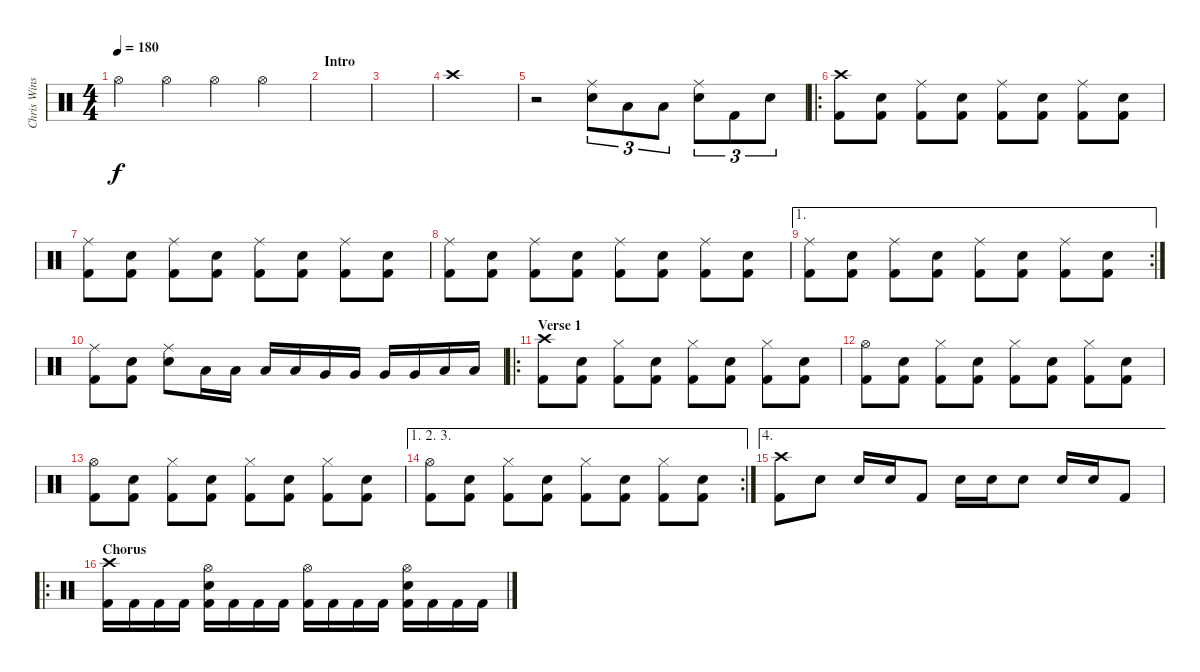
\track ("Chris Winship (Drums)" "Chris Wins") {instrument percussion}
\staff {score}
\articulation defaults
\ts (4 4)
\tempo 180
\clef neutral
\ks c "Hi-Hat (open)".4{dy f} "Hi-Hat (open)".4 "Hi-Hat (open)".4 "Hi-Hat (open)".4
|
\section ("" "Intro")
|
|
"Crash high (hit)".1 |
r.2 ("Ride (middle)" "Electric Snare (hit)").8{tu (3 2)} "Low Floor Tom (hit)".8{tu (3 2)} "Low Floor Tom (hit)".8{tu (3 2)} ("Ride (middle)" "Electric Snare (hit)").8{tu (3 2)} "Kick (hit) 2".8{tu (3 2)} "Electric Snare (hit)".8{tu (3 2)} |
\ro
("Crash high (hit)" "Kick (hit) 2").8 ("Electric Snare (hit)" "Kick (hit) 2").8 ("Ride (middle)" "Kick (hit) 2").8 ("Electric Snare (hit)" "Kick (hit) 2").8 ("Ride (middle)" "Kick (hit) 2").8 ("Electric Snare (hit)" "Kick (hit) 2").8 ("Ride (middle)" "Kick (hit) 2").8 ("Electric Snare (hit)" "Kick (hit) 2").8 |
("Ride (middle)" "Kick (hit) 2").8 ("Electric Snare (hit)" "Kick (hit) 2").8 ("Ride (middle)" "Kick (hit) 2").8 ("Electric Snare (hit)" "Kick (hit) 2").8 ("Ride (middle)" "Kick (hit) 2").8 ("Electric Snare (hit)" "Kick (hit) 2").8 ("Ride (middle)" "Kick (hit) 2").8 ("Electric Snare (hit)" "Kick (hit) 2").8 |
("Ride (middle)" "Kick (hit) 2").8 ("Electric Snare (hit)" "Kick (hit) 2").8 ("Ride (middle)" "Kick (hit) 2").8 ("Electric Snare (hit)" "Kick (hit) 2").8 ("Ride (middle)" "Kick (hit) 2").8 ("Electric Snare (hit)" "Kick (hit) 2").8 ("Ride (middle)" "Kick (hit) 2").8 ("Electric Snare (hit)" "Kick (hit) 2").8 |
\ae 1
\rc 2
("Ride (middle)" "Kick (hit) 2").8 ("Electric Snare (hit)" "Kick (hit) 2").8 ("Ride (middle)" "Kick (hit) 2").8 ("Electric Snare (hit)" "Kick (hit) 2").8 ("Ride (middle)" "Kick (hit) 2").8 ("Electric Snare (hit)" "Kick (hit) 2").8 ("Ride (middle)" "Kick (hit) 2").8 ("Electric Snare (hit)" "Kick (hit) 2").8 |
("Ride (middle)" "Kick (hit) 2").8 ("Electric Snare (hit)" "Kick (hit) 2").8 ("Ride (middle)" "Electric Snare (hit)").8 "Low Floor Tom (hit)".16 "Low Floor Tom (hit)".16 "Low Tom (hit)".16 "Low Tom (hit)".16 "Very Low Tom (hit)".16 "Very Low Tom (hit)".16 "Very Low Tom (hit)".16 "Very Low Tom (hit)".16 "Low Floor Tom (hit)".16 "Low Floor Tom (hit)".16 |
\ro
\section ("" "Verse 1")
("Crash high (hit)" "Kick (hit) 2").8 ("Electric Snare (hit)" "Kick (hit) 2").8 ("Hi-Hat (closed)" "Kick (hit) 2").8 ("Electric Snare (hit)" "Kick (hit) 2").8 ("Hi-Hat (closed)" "Kick (hit) 2").8 ("Electric Snare (hit)" "Kick (hit) 2").8 ("Hi-Hat (closed)" "Kick (hit) 2").8 ("Electric Snare (hit)" "Kick (hit) 2").8 |
("Hi-Hat (open)" "Kick (hit) 2").8 ("Electric Snare (hit)" "Kick (hit) 2").8 ("Hi-Hat (closed)" "Kick (hit) 2").8 ("Electric Snare (hit)" "Kick (hit) 2").8 ("Hi-Hat (closed)" "Kick (hit) 2").8 ("Electric Snare (hit)" "Kick (hit) 2").8 ("Hi-Hat (closed)" "Kick (hit) 2").8 ("Electric Snare (hit)" "Kick (hit) 2").8 |
("Hi-Hat (open)" "Kick (hit) 2").8 ("Electric Snare (hit)" "Kick (hit) 2").8 ("Hi-Hat (closed)" "Kick (hit) 2").8 ("Electric Snare (hit)" "Kick (hit) 2").8 ("Hi-Hat (closed)" "Kick (hit) 2").8 ("Electric Snare (hit)" "Kick (hit) 2").8 ("Hi-Hat (closed)" "Kick (hit) 2").8 ("Electric Snare (hit)" "Kick (hit) 2").8 |
\ae (1 2 3)
\rc 2
("Hi-Hat (open)" "Kick (hit) 2").8 ("Electric Snare (hit)" "Kick (hit) 2").8 ("Hi-Hat (closed)" "Kick (hit) 2").8 ("Electric Snare (hit)" "Kick (hit) 2").8 ("Hi-Hat (closed)" "Kick (hit) 2").8 ("Electric Snare (hit)" "Kick (hit) 2").8 ("Hi-Hat (closed)" "Kick (hit) 2").8 ("Electric Snare (hit)" "Kick (hit) 2").8 |
\ae 4
("Crash high (hit)" "Kick (hit) 2").8 "Electric Snare (hit)".8 "Electric Snare (hit)".16 "Electric Snare (hit)".16 "Kick (hit) 2".8 "Electric Snare (hit)".16 "Electric Snare (hit)".16 "Electric Snare (hit)".8 "Electric Snare (hit)".16 "Electric Snare (hit)".16 "Kick (hit) 2".8 |
\ro
\section ("" "Chorus")
("Crash high (hit)" "Kick (hit) 2").16 "Kick (hit) 2".16 "Kick (hit) 2".16 "Kick (hit) 2".16 ("Hi-Hat (open)" "Electric Snare (hit)" "Kick (hit) 2").16 "Kick (hit) 2".16 "Kick (hit) 2".16 "Kick (hit) 2".16 ("Hi-Hat (open)" "Kick (hit) 2").16 "Kick (hit) 2".16 "Kick (hit) 2".16 "Kick (hit) 2".16 ("Hi-Hat (open)" "Electric Snare (hit)" "Kick (hit) 2").16 "Kick (hit) 2".16 "Kick (hit) 2".16 "Kick (hit) 2".16
